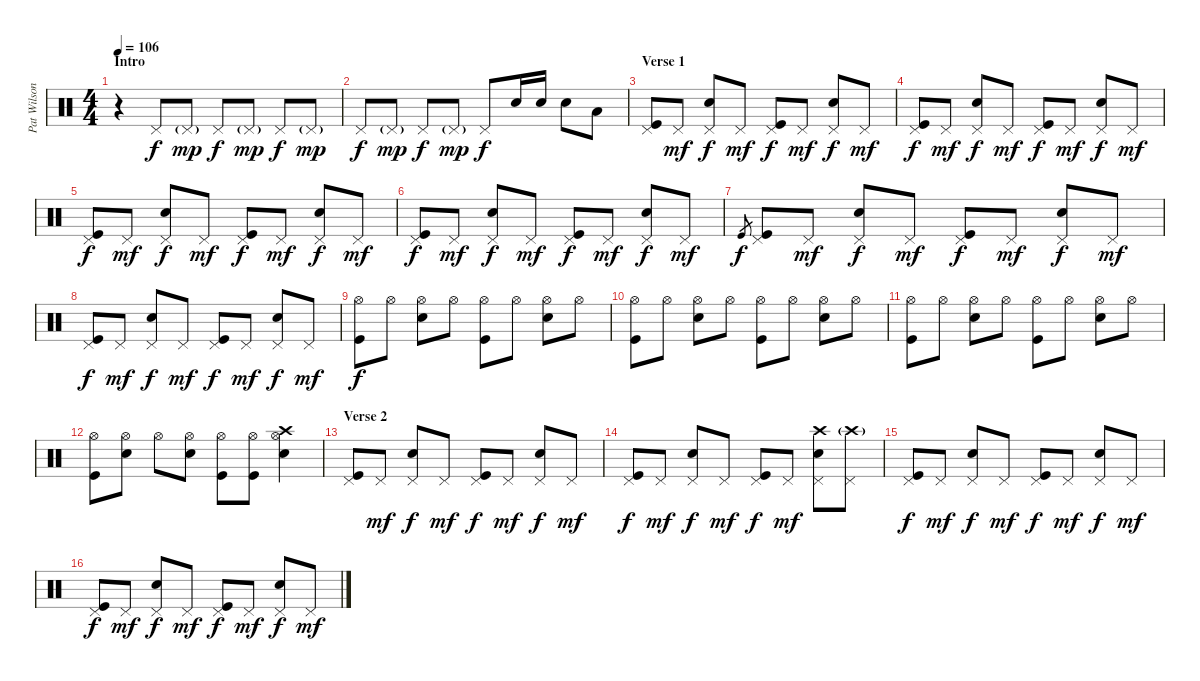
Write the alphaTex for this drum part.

\track ("Pat Wilson" "Pat Wilson") {instrument percussion}
\staff {score}
\articulation defaults
\ts (4 4)
\section ("" "Intro")
\tempo 106
\clef neutral
\ks c
r.4{dy f} "Pedal Hi-Hat (hit)".8 "Pedal Hi-Hat (hit)"{g}.8{dy mp} "Pedal Hi-Hat (hit)".8{dy f} "Pedal Hi-Hat (hit)"{g}.8{dy mp} "Pedal Hi-Hat (hit)".8{dy f} "Pedal Hi-Hat (hit)"{g}.8{dy mp} |
"Pedal Hi-Hat (hit)".8{dy f} "Pedal Hi-Hat (hit)"{g}.8{dy mp} "Pedal Hi-Hat (hit)".8{dy f} "Pedal Hi-Hat (hit)"{g}.8{dy mp} "Pedal Hi-Hat (hit)".8{dy f} "Snare (hit) 2".16 "Snare (hit) 2".16 "Electric Snare (hit)".8 "Low Tom (hit)".8 |
\section ("" "Verse 1")
("Pedal Hi-Hat (hit)" "Kick (hit)").8 "Pedal Hi-Hat (hit)".8{dy mf} ("Pedal Hi-Hat (hit)" "Snare (hit) 2").8{dy f} "Pedal Hi-Hat (hit)".8{dy mf} ("Pedal Hi-Hat (hit)" "Kick (hit)").8{dy f} "Pedal Hi-Hat (hit)".8{dy mf} ("Pedal Hi-Hat (hit)" "Snare (hit) 2").8{dy f} "Pedal Hi-Hat (hit)".8{dy mf} |
("Pedal Hi-Hat (hit)" "Kick (hit)").8{dy f} "Pedal Hi-Hat (hit)".8{dy mf} ("Pedal Hi-Hat (hit)" "Snare (hit) 2").8{dy f} "Pedal Hi-Hat (hit)".8{dy mf} ("Pedal Hi-Hat (hit)" "Kick (hit)").8{dy f} "Pedal Hi-Hat (hit)".8{dy mf} ("Pedal Hi-Hat (hit)" "Snare (hit) 2").8{dy f} "Pedal Hi-Hat (hit)".8{dy mf} |
("Pedal Hi-Hat (hit)" "Kick (hit)").8{dy f} "Pedal Hi-Hat (hit)".8{dy mf} ("Pedal Hi-Hat (hit)" "Snare (hit) 2").8{dy f} "Pedal Hi-Hat (hit)".8{dy mf} ("Pedal Hi-Hat (hit)" "Kick (hit)").8{dy f} "Pedal Hi-Hat (hit)".8{dy mf} ("Pedal Hi-Hat (hit)" "Snare (hit) 2").8{dy f} "Pedal Hi-Hat (hit)".8{dy mf} |
("Pedal Hi-Hat (hit)" "Kick (hit)").8{dy f} "Pedal Hi-Hat (hit)".8{dy mf} ("Pedal Hi-Hat (hit)" "Snare (hit) 2").8{dy f} "Pedal Hi-Hat (hit)".8{dy mf} ("Pedal Hi-Hat (hit)" "Kick (hit)").8{dy f} "Pedal Hi-Hat (hit)".8{dy mf} ("Pedal Hi-Hat (hit)" "Snare (hit) 2").8{dy f} "Pedal Hi-Hat (hit)".8{dy mf} |
"Kick (hit)".8{gr dy f} ("Pedal Hi-Hat (hit)" "Kick (hit)").8 "Pedal Hi-Hat (hit)".8{dy mf} ("Pedal Hi-Hat (hit)" "Snare (hit) 2").8{dy f} "Pedal Hi-Hat (hit)".8{dy mf} ("Pedal Hi-Hat (hit)" "Kick (hit)").8{dy f} "Pedal Hi-Hat (hit)".8{dy mf} ("Pedal Hi-Hat (hit)" "Snare (hit) 2").8{dy f} "Pedal Hi-Hat (hit)".8{dy mf} |
("Pedal Hi-Hat (hit)" "Kick (hit)").8{dy f} "Pedal Hi-Hat (hit)".8{dy mf} ("Pedal Hi-Hat (hit)" "Snare (hit) 2").8{dy f} "Pedal Hi-Hat (hit)".8{dy mf} ("Pedal Hi-Hat (hit)" "Kick (hit)").8{dy f} "Pedal Hi-Hat (hit)".8{dy mf} ("Pedal Hi-Hat (hit)" "Snare (hit) 2").8{dy f} "Pedal Hi-Hat (hit)".8{dy mf} |
("Hi-Hat (open)" "Kick (hit)").8{dy f} "Hi-Hat (open)".8 ("Hi-Hat (open)" "Snare (hit) 2").8 "Hi-Hat (open)".8 ("Hi-Hat (open)" "Kick (hit)").8 "Hi-Hat (open)".8 ("Hi-Hat (open)" "Snare (hit) 2").8 "Hi-Hat (open)".8 |
("Hi-Hat (open)" "Kick (hit)").8 "Hi-Hat (open)".8 ("Hi-Hat (open)" "Snare (hit) 2").8 "Hi-Hat (open)".8 ("Hi-Hat (open)" "Kick (hit)").8 "Hi-Hat (open)".8 ("Hi-Hat (open)" "Snare (hit) 2").8 "Hi-Hat (open)".8 |
("Hi-Hat (open)" "Kick (hit)").8 "Hi-Hat (open)".8 ("Hi-Hat (open)" "Snare (hit) 2").8 "Hi-Hat (open)".8 ("Hi-Hat (open)" "Kick (hit)").8 "Hi-Hat (open)".8 ("Hi-Hat (open)" "Snare (hit) 2").8 "Hi-Hat (open)".8 |
("Hi-Hat (open)" "Kick (hit)").8 ("Hi-Hat (open)" "Snare (hit) 2").8 "Hi-Hat (open)".8 ("Hi-Hat (open)" "Snare (hit) 2").8 ("Hi-Hat (open)" "Kick (hit)").8 ("Hi-Hat (open)" "Kick (hit)").8 ("Crash high (hit)" "Hi-Hat (open)" "Snare (hit) 2").4 |
\section ("" "Verse 2")
("Pedal Hi-Hat (hit)" "Kick (hit)").8 "Pedal Hi-Hat (hit)".8{dy mf} ("Pedal Hi-Hat (hit)" "Snare (hit) 2").8{dy f} "Pedal Hi-Hat (hit)".8{dy mf} ("Pedal Hi-Hat (hit)" "Kick (hit)").8{dy f} "Pedal Hi-Hat (hit)".8{dy mf} ("Pedal Hi-Hat (hit)" "Snare (hit) 2").8{dy f} "Pedal Hi-Hat (hit)".8{dy mf} |
("Pedal Hi-Hat (hit)" "Kick (hit)").8{dy f} "Pedal Hi-Hat (hit)".8{dy mf} ("Pedal Hi-Hat (hit)" "Snare (hit) 2").8{dy f} "Pedal Hi-Hat (hit)".8{dy mf} ("Pedal Hi-Hat (hit)" "Kick (hit)").8{dy f} "Pedal Hi-Hat (hit)".8{dy mf} ("Crash high (hit)" "Pedal Hi-Hat (hit)" "Snare (hit) 2").8 ("Crash high (hit)"{g} "Pedal Hi-Hat (hit)").8 |
("Pedal Hi-Hat (hit)" "Kick (hit)").8{dy f} "Pedal Hi-Hat (hit)".8{dy mf} ("Pedal Hi-Hat (hit)" "Snare (hit) 2").8{dy f} "Pedal Hi-Hat (hit)".8{dy mf} ("Pedal Hi-Hat (hit)" "Kick (hit)").8{dy f} "Pedal Hi-Hat (hit)".8{dy mf} ("Pedal Hi-Hat (hit)" "Snare (hit) 2").8{dy f} "Pedal Hi-Hat (hit)".8{dy mf} |
("Pedal Hi-Hat (hit)" "Kick (hit)").8{dy f} "Pedal Hi-Hat (hit)".8{dy mf} ("Pedal Hi-Hat (hit)" "Snare (hit) 2").8{dy f} "Pedal Hi-Hat (hit)".8{dy mf} ("Pedal Hi-Hat (hit)" "Kick (hit)").8{dy f} "Pedal Hi-Hat (hit)".8{dy mf} ("Pedal Hi-Hat (hit)" "Snare (hit) 2").8{dy f} "Pedal Hi-Hat (hit)".8{dy mf}
